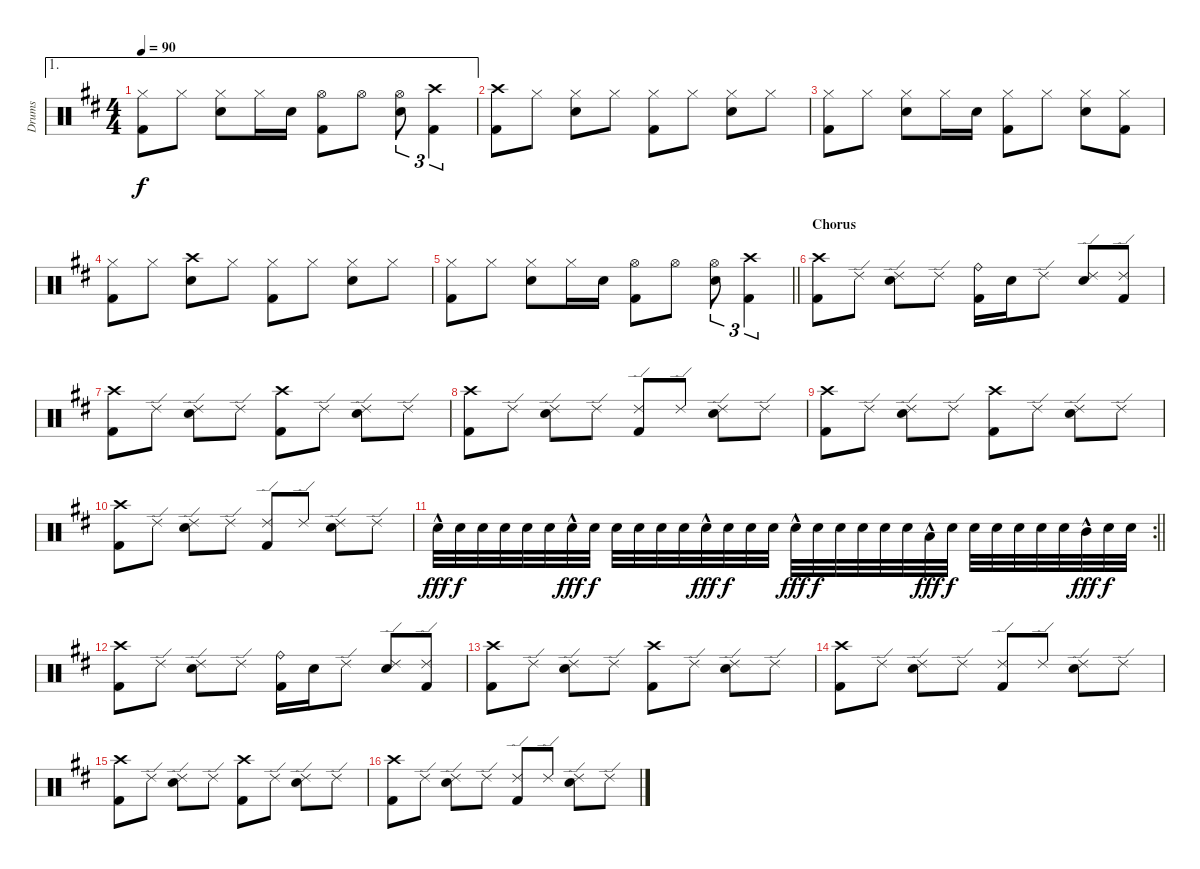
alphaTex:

\track ("Drums" "Drums") {instrument percussion}
\staff {score}
\articulation defaults
\ae 1
\ts (4 4)
\tempo 90
\clef neutral
\ks bminor
("Hi-Hat (closed)" "Kick (hit) 2").8{dy f} "Hi-Hat (closed)".8 ("Hi-Hat (closed)" "Snare (hit) 2").8 "Hi-Hat (closed)".16 "Snare (hit) 2".16 ("Hi-Hat (open)" "Kick (hit) 2").8 "Hi-Hat (open)".8 ("Hi-Hat (open)" "Snare (hit) 2").8{tu (3 2)} ("Crash high (hit)" "Kick (hit) 2").4{tu (3 2)} |
("Crash high (hit)" "Kick (hit) 2").8 "Hi-Hat (closed)".8 ("Hi-Hat (closed)" "Snare (hit) 2").8 "Hi-Hat (closed)".8 ("Hi-Hat (closed)" "Kick (hit) 2").8 "Hi-Hat (closed)".8 ("Hi-Hat (closed)" "Snare (hit) 2").8 "Hi-Hat (closed)".8 |
("Hi-Hat (closed)" "Kick (hit) 2").8 "Hi-Hat (closed)".8 ("Hi-Hat (closed)" "Snare (hit) 2").8 "Hi-Hat (closed)".16 "Snare (hit) 2".16 ("Hi-Hat (closed)" "Kick (hit) 2").8 "Hi-Hat (closed)".8 ("Hi-Hat (closed)" "Snare (hit) 2").8 ("Hi-Hat (closed)" "Kick (hit) 2").8 |
("Hi-Hat (closed)" "Kick (hit) 2").8 "Hi-Hat (closed)".8 ("Crash high (hit)" "Snare (hit) 2").8 "Hi-Hat (closed)".8 ("Hi-Hat (closed)" "Kick (hit) 2").8 "Hi-Hat (closed)".8 ("Hi-Hat (closed)" "Snare (hit) 2").8 "Hi-Hat (closed)".8 |
\barLineRight lightlight
("Hi-Hat (closed)" "Kick (hit) 2").8 "Hi-Hat (closed)".8 ("Hi-Hat (closed)" "Snare (hit) 2").8 "Hi-Hat (closed)".16 "Snare (hit) 2".16 ("Hi-Hat (open)" "Kick (hit) 2").8 "Hi-Hat (open)".8 ("Hi-Hat (open)" "Snare (hit) 2").8{tu (3 2)} ("Crash high (hit)" "Kick (hit) 2").4{tu (3 2)} |
\section ("" "Chorus")
("Crash high (hit)" "Kick (hit) 2").8 "Ride (edge) 2".8 ("Ride (edge) 2" "Snare (hit) 2").8 "Ride (edge) 2".8 ("Ride (bell)" "Kick (hit) 2").16 "Snare (hit) 2".16 "Ride (edge) 2".8 ("Ride (edge) 2" "Snare (hit) 2").8 ("Ride (edge) 2" "Kick (hit) 2").8 |
("Crash high (hit)" "Kick (hit) 2").8 "Ride (edge) 2".8 ("Ride (edge) 2" "Snare (hit) 2").8 "Ride (edge) 2".8 ("Crash high (hit)" "Kick (hit) 2").8 "Ride (edge) 2".8 ("Ride (edge) 2" "Snare (hit) 2").8 "Ride (edge) 2".8 |
("Crash high (hit)" "Kick (hit) 2").8 "Ride (edge) 2".8 ("Ride (edge) 2" "Snare (hit) 2").8 "Ride (edge) 2".8 ("Ride (edge) 2" "Kick (hit) 2").8 "Ride (edge) 2".8 ("Ride (edge) 2" "Snare (hit) 2").8 "Ride (edge) 2".8 |
("Crash high (hit)" "Kick (hit) 2").8 "Ride (edge) 2".8 ("Ride (edge) 2" "Snare (hit) 2").8 "Ride (edge) 2".8 ("Crash high (hit)" "Kick (hit) 2").8 "Ride (edge) 2".8 ("Ride (edge) 2" "Snare (hit) 2").8 "Ride (edge) 2".8 |
("Crash high (hit)" "Kick (hit) 2").8 "Ride (edge) 2".8 ("Ride (edge) 2" "Snare (hit) 2").8 "Ride (edge) 2".8 ("Ride (edge) 2" "Kick (hit) 2").8 "Ride (edge) 2".8 ("Ride (edge) 2" "Snare (hit) 2").8 "Ride (edge) 2".8 |
\rc 2
\barLineRight lightlight "Snare (hit) 2"{hac}.32{dy fff} "Snare (hit) 2".32{dy f} "Snare (hit) 2".32 "Snare (hit) 2".32 "Snare (hit) 2".32 "Snare (hit) 2".32 "Snare (hit) 2"{hac}.32{dy fff} "Snare (hit) 2".32{dy f} "Snare (hit) 2".32 "Snare (hit) 2".32 "Snare (hit) 2".32 "Snare (hit) 2".32 "Snare (hit) 2"{hac}.32{dy fff} "Snare (hit) 2".32{dy f} "Snare (hit) 2".32 "Snare (hit) 2".32 "Snare (hit) 2"{hac}.32{dy fff} "Snare (hit) 2".32{dy f} "Snare (hit) 2".32 "Snare (hit) 2".32 "Snare (hit) 2".32 "Snare (hit) 2".32 "Low Tom (hit)"{hac}.32{dy fff} "Snare (hit) 2".32{dy f} "Snare (hit) 2".32 "Snare (hit) 2".32 "Snare (hit) 2".32 "Snare (hit) 2".32 "Snare (hit) 2".32 "Mid Tom (hit)"{hac}.32{dy fff} "Snare (hit) 2".32{dy f} "Snare (hit) 2".32
|
("Crash high (hit)" "Kick (hit) 2").8 "Ride (edge) 2".8 ("Ride (edge) 2" "Snare (hit) 2").8 "Ride (edge) 2".8 ("Ride (bell)" "Kick (hit) 2").16 "Snare (hit) 2".16 "Ride (edge) 2".8 ("Ride (edge) 2" "Snare (hit) 2").8 ("Ride (edge) 2" "Kick (hit) 2").8 |
("Crash high (hit)" "Kick (hit) 2").8 "Ride (edge) 2".8 ("Ride (edge) 2" "Snare (hit) 2").8 "Ride (edge) 2".8 ("Crash high (hit)" "Kick (hit) 2").8 "Ride (edge) 2".8 ("Ride (edge) 2" "Snare (hit) 2").8 "Ride (edge) 2".8 |
("Crash high (hit)" "Kick (hit) 2").8 "Ride (edge) 2".8 ("Ride (edge) 2" "Snare (hit) 2").8 "Ride (edge) 2".8 ("Ride (edge) 2" "Kick (hit) 2").8 "Ride (edge) 2".8 ("Ride (edge) 2" "Snare (hit) 2").8 "Ride (edge) 2".8 |
("Crash high (hit)" "Kick (hit) 2").8 "Ride (edge) 2".8 ("Ride (edge) 2" "Snare (hit) 2").8 "Ride (edge) 2".8 ("Crash high (hit)" "Kick (hit) 2").8 "Ride (edge) 2".8 ("Ride (edge) 2" "Snare (hit) 2").8 "Ride (edge) 2".8 |
("Crash high (hit)" "Kick (hit) 2").8 "Ride (edge) 2".8 ("Ride (edge) 2" "Snare (hit) 2").8 "Ride (edge) 2".8 ("Ride (edge) 2" "Kick (hit) 2").8 "Ride (edge) 2".8 ("Ride (edge) 2" "Snare (hit) 2").8 "Ride (edge) 2".8
